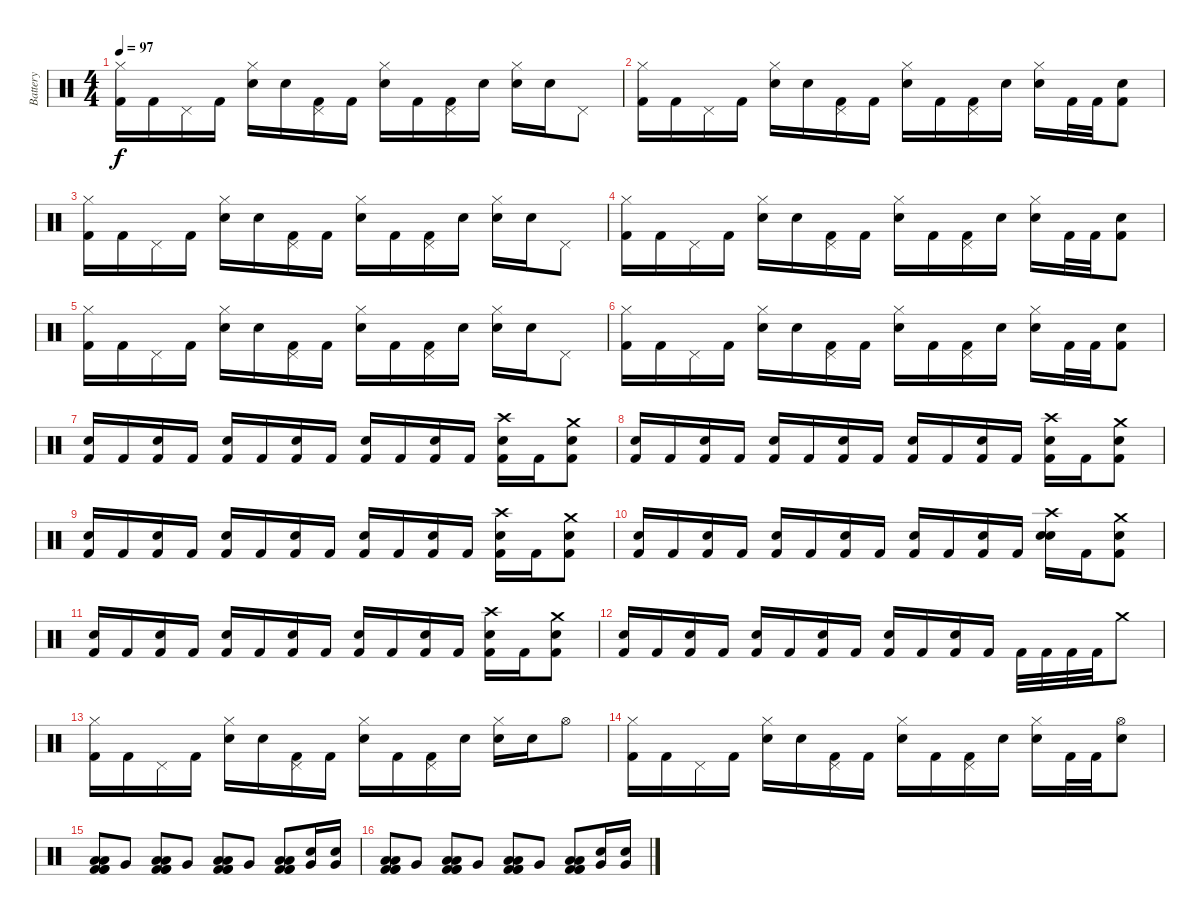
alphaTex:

\track ("Battery" "Battery") {instrument percussion}
\staff {score}
\articulation defaults
\ts (4 4)
\tempo 97
\clef neutral
\ks c
("Kick (hit) 2" "Hi-Hat (closed)").16{dy f} "Kick (hit) 2".16 "Pedal Hi-Hat (hit)".16 "Kick (hit) 2".16 ("Snare (hit) 2" "Hi-Hat (closed)").16 "Snare (hit)".16 ("Kick (hit) 2" "Pedal Hi-Hat (hit)").16 "Kick (hit) 2".16 ("Snare (hit)" "Hi-Hat (closed)").16 "Kick (hit) 2".16 ("Kick (hit) 2" "Pedal Hi-Hat (hit)").16 "Snare (hit)".16 ("Snare (hit) 2" "Hi-Hat (closed)").16 "Snare (hit)".16 "Pedal Hi-Hat (hit)".8 |
("Kick (hit) 2" "Hi-Hat (closed)").16 "Kick (hit) 2".16 "Pedal Hi-Hat (hit)".16 "Kick (hit) 2".16 ("Snare (hit) 2" "Hi-Hat (closed)").16 "Snare (hit)".16 ("Kick (hit) 2" "Pedal Hi-Hat (hit)").16 "Kick (hit) 2".16 ("Snare (hit)" "Hi-Hat (closed)").16 "Kick (hit) 2".16 ("Kick (hit) 2" "Pedal Hi-Hat (hit)").16 "Snare (hit)".16 ("Snare (hit) 2" "Hi-Hat (closed)").16 "Kick (hit) 2".32 "Kick (hit) 2".32 ("Kick (hit) 2" "Snare (hit) 2").8 |
("Kick (hit) 2" "Hi-Hat (closed)").16 "Kick (hit) 2".16 "Pedal Hi-Hat (hit)".16 "Kick (hit) 2".16 ("Snare (hit) 2" "Hi-Hat (closed)").16 "Snare (hit)".16 ("Kick (hit) 2" "Pedal Hi-Hat (hit)").16 "Kick (hit) 2".16 ("Snare (hit)" "Hi-Hat (closed)").16 "Kick (hit) 2".16 ("Kick (hit) 2" "Pedal Hi-Hat (hit)").16 "Snare (hit)".16 ("Snare (hit) 2" "Hi-Hat (closed)").16 "Snare (hit)".16 "Pedal Hi-Hat (hit)".8 |
("Kick (hit) 2" "Hi-Hat (closed)").16 "Kick (hit) 2".16 "Pedal Hi-Hat (hit)".16 "Kick (hit) 2".16 ("Snare (hit) 2" "Hi-Hat (closed)").16 "Snare (hit)".16 ("Kick (hit) 2" "Pedal Hi-Hat (hit)").16 "Kick (hit) 2".16 ("Snare (hit)" "Hi-Hat (closed)").16 "Kick (hit) 2".16 ("Kick (hit) 2" "Pedal Hi-Hat (hit)").16 "Snare (hit)".16 ("Snare (hit) 2" "Hi-Hat (closed)").16 "Kick (hit) 2".32 "Kick (hit) 2".32 ("Kick (hit) 2" "Snare (hit) 2").8 |
("Kick (hit) 2" "Hi-Hat (closed)").16 "Kick (hit) 2".16 "Pedal Hi-Hat (hit)".16 "Kick (hit) 2".16 ("Snare (hit) 2" "Hi-Hat (closed)").16 "Snare (hit)".16 ("Kick (hit) 2" "Pedal Hi-Hat (hit)").16 "Kick (hit) 2".16 ("Snare (hit)" "Hi-Hat (closed)").16 "Kick (hit) 2".16 ("Kick (hit) 2" "Pedal Hi-Hat (hit)").16 "Snare (hit)".16 ("Snare (hit) 2" "Hi-Hat (closed)").16 "Snare (hit)".16 "Pedal Hi-Hat (hit)".8 |
("Kick (hit) 2" "Hi-Hat (closed)").16 "Kick (hit) 2".16 "Pedal Hi-Hat (hit)".16 "Kick (hit) 2".16 ("Snare (hit) 2" "Hi-Hat (closed)").16 "Snare (hit)".16 ("Kick (hit) 2" "Pedal Hi-Hat (hit)").16 "Kick (hit) 2".16 ("Snare (hit)" "Hi-Hat (closed)").16 "Kick (hit) 2".16 ("Kick (hit) 2" "Pedal Hi-Hat (hit)").16 "Snare (hit)".16 ("Snare (hit) 2" "Hi-Hat (closed)").16 "Kick (hit) 2".32 "Kick (hit) 2".32 ("Kick (hit) 2" "Snare (hit) 2").8 |
("Kick (hit) 2" "Snare (hit) 2").16 "Kick (hit) 2".16 ("Kick (hit) 2" "Snare (hit) 2").16 "Kick (hit) 2".16 ("Kick (hit) 2" "Snare (hit) 2").16 "Kick (hit) 2".16 ("Kick (hit) 2" "Snare (hit) 2").16 "Kick (hit) 2".16 ("Kick (hit) 2" "Snare (hit) 2").16 "Kick (hit) 2".16 ("Kick (hit) 2" "Snare (hit) 2").16 "Kick (hit) 2".16 ("Kick (hit) 2" "Crash high (hit)" "Snare (hit) 2").16 "Kick (hit) 2".16 ("Kick (hit) 2" "Crash medium (hit)" "Snare (hit) 2").8 |
("Kick (hit) 2" "Snare (hit) 2").16 "Kick (hit) 2".16 ("Kick (hit) 2" "Snare (hit) 2").16 "Kick (hit) 2".16 ("Kick (hit) 2" "Snare (hit) 2").16 "Kick (hit) 2".16 ("Kick (hit) 2" "Snare (hit) 2").16 "Kick (hit) 2".16 ("Kick (hit) 2" "Snare (hit) 2").16 "Kick (hit) 2".16 ("Kick (hit) 2" "Snare (hit) 2").16 "Kick (hit) 2".16 ("Kick (hit) 2" "Snare (hit) 2" "Crash high (hit)").16 "Kick (hit) 2".16 ("Kick (hit) 2" "Snare (hit) 2" "Crash medium (hit)").8 |
("Kick (hit) 2" "Snare (hit) 2").16 "Kick (hit) 2".16 ("Kick (hit) 2" "Snare (hit) 2").16 "Kick (hit) 2".16 ("Kick (hit) 2" "Snare (hit) 2").16 "Kick (hit) 2".16 ("Kick (hit) 2" "Snare (hit) 2").16 "Kick (hit) 2".16 ("Kick (hit) 2" "Snare (hit) 2").16 "Kick (hit) 2".16 ("Kick (hit) 2" "Snare (hit) 2").16 "Kick (hit) 2".16 ("Kick (hit) 2" "Crash high (hit)" "Snare (hit) 2").16 "Kick (hit) 2".16 ("Kick (hit) 2" "Crash medium (hit)" "Snare (hit) 2").8 |
("Kick (hit) 2" "Snare (hit) 2").16 "Kick (hit) 2".16 ("Kick (hit) 2" "Snare (hit) 2").16 "Kick (hit) 2".16 ("Kick (hit) 2" "Snare (hit) 2").16 "Kick (hit) 2".16 ("Kick (hit) 2" "Snare (hit) 2").16 "Kick (hit) 2".16 ("Kick (hit) 2" "Snare (hit) 2").16 "Kick (hit) 2".16 ("Kick (hit) 2" "Snare (hit) 2").16 "Kick (hit) 2".16 ("Snare (hit) 2" "Crash high (hit)" "Snare (hit) 2").16 "Kick (hit) 2".16 ("Kick (hit) 2" "Crash medium (hit)" "Snare (hit) 2").8 |
("Kick (hit) 2" "Snare (hit) 2").16 "Kick (hit) 2".16 ("Kick (hit) 2" "Snare (hit) 2").16 "Kick (hit) 2".16 ("Kick (hit) 2" "Snare (hit) 2").16 "Kick (hit) 2".16 ("Kick (hit) 2" "Snare (hit) 2").16 "Kick (hit) 2".16 ("Kick (hit) 2" "Snare (hit) 2").16 "Kick (hit) 2".16 ("Kick (hit) 2" "Snare (hit) 2").16 "Kick (hit) 2".16 ("Kick (hit) 2" "Crash high (hit)" "Snare (hit) 2").16 "Kick (hit) 2".16 ("Kick (hit) 2" "Crash medium (hit)" "Snare (hit) 2").8 |
("Kick (hit) 2" "Snare (hit) 2").16 "Kick (hit) 2".16 ("Kick (hit) 2" "Snare (hit) 2").16 "Kick (hit) 2".16 ("Kick (hit) 2" "Snare (hit) 2").16 "Kick (hit) 2".16 ("Kick (hit) 2" "Snare (hit) 2").16 "Kick (hit) 2".16 ("Kick (hit) 2" "Snare (hit) 2").16 "Kick (hit) 2".16 ("Kick (hit) 2" "Snare (hit) 2").16 "Kick (hit) 2".16 "Kick (hit) 2".32 "Kick (hit) 2".32 "Kick (hit) 2".32 "Kick (hit) 2".32 "Crash medium (hit)".8 |
("Kick (hit) 2" "Hi-Hat (closed)").16 "Kick (hit) 2".16 "Pedal Hi-Hat (hit)".16 "Kick (hit) 2".16 ("Snare (hit) 2" "Hi-Hat (closed)").16 "Snare (hit)".16 ("Kick (hit) 2" "Pedal Hi-Hat (hit)").16 "Kick (hit) 2".16 ("Snare (hit)" "Hi-Hat (closed)").16 "Kick (hit) 2".16 ("Kick (hit) 2" "Pedal Hi-Hat (hit)").16 "Snare (hit)".16 ("Snare (hit) 2" "Hi-Hat (closed)").16 "Snare (hit)".16 "Hi-Hat (open)".8 |
("Kick (hit) 2" "Hi-Hat (closed)").16 "Kick (hit) 2".16 "Pedal Hi-Hat (hit)".16 "Kick (hit) 2".16 ("Snare (hit) 2" "Hi-Hat (closed)").16 "Snare (hit)".16 ("Kick (hit) 2" "Pedal Hi-Hat (hit)").16 "Kick (hit) 2".16 ("Snare (hit)" "Hi-Hat (closed)").16 "Kick (hit) 2".16 ("Kick (hit) 2" "Pedal Hi-Hat (hit)").16 "Snare (hit)".16 ("Snare (hit) 2" "Hi-Hat (closed)").16 "Kick (hit) 2".32 "Kick (hit) 2".32 ("Hi-Hat (open)" "Snare (hit) 2").8 |
("Low Tom (hit)" "Kick (hit) 2" "Low Tom (hit)" "Kick (hit) 2" "Kick (hit) 2").8 "Very Low Tom (hit)".8 ("Low Floor Tom (hit)" "Kick (hit) 2" "Low Tom (hit)" "Kick (hit) 2" "Kick (hit) 2").8 "Very Low Tom (hit)".8 ("Low Tom (hit)" "Kick (hit) 2" "Low Tom (hit)" "Kick (hit) 2" "Kick (hit) 2").8 "Very Low Tom (hit)".8 ("Low Tom (hit)" "Kick (hit) 2" "Low Tom (hit)" "Kick (hit) 2" "Kick (hit) 2").8 ("Very Low Tom (hit)" "Snare (hit) 2").16 ("Very Low Tom (hit)" "Snare (hit) 2").16 |
("Low Tom (hit)" "Kick (hit) 2" "Low Tom (hit)" "Kick (hit) 2" "Kick (hit) 2").8 "Very Low Tom (hit)".8 ("Low Floor Tom (hit)" "Kick (hit) 2" "Low Tom (hit)" "Kick (hit) 2" "Kick (hit) 2").8 "Very Low Tom (hit)".8 ("Low Tom (hit)" "Kick (hit) 2" "Low Tom (hit)" "Kick (hit) 2" "Kick (hit) 2").8 "Very Low Tom (hit)".8 ("Low Tom (hit)" "Kick (hit) 2" "Low Tom (hit)" "Kick (hit) 2" "Kick (hit) 2").8 ("Very Low Tom (hit)" "Snare (hit) 2").16 ("Very Low Tom (hit)" "Snare (hit) 2").16
